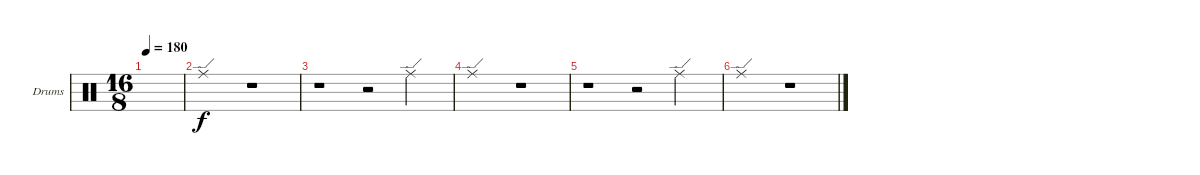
\defaultSystemsLayout 4
\bracketExtendMode groupsimilarinstruments
\firstSystemTrackNameOrientation horizontal
\otherSystemsTrackNameOrientation horizontal
\track ("Ride" "Drums") {instrument percussion}
\staff {score}
\articulation defaults
\ts (16 8)
\tempo 180
\clef neutral
\ks c
|
"Ride (edge)".1 r.1 |
r.1 r.2 "Ride (edge)".2 |
"Ride (edge)".1 r.1 |
r.1 r.2 "Ride (edge)".2 |
"Ride (edge)".1 r.1
